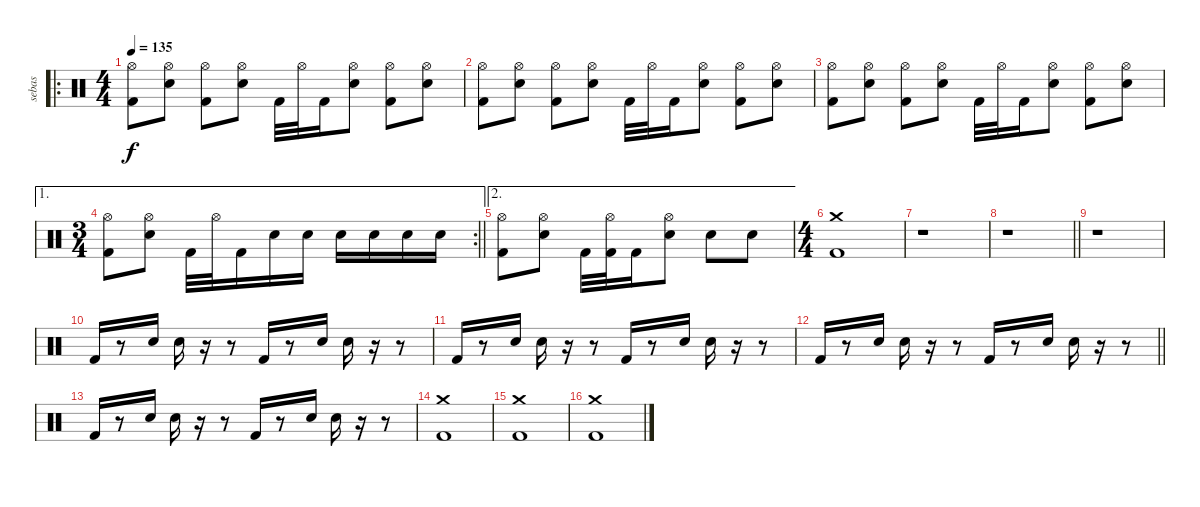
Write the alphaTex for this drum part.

\track ("sebas" "sebas") {instrument percussion}
\staff {score}
\articulation defaults
\ro
\ts (4 4)
\tempo 135
\clef neutral
\ks c
("Hi-Hat (open)" "Kick (hit) 2").8{dy f} ("Hi-Hat (open)" "Snare (hit) 2").8 ("Hi-Hat (open)" "Kick (hit) 2").8 ("Hi-Hat (open)" "Snare (hit) 2").8 "Kick (hit) 2".32 "Hi-Hat (open)".32 "Kick (hit) 2".16 ("Hi-Hat (open)" "Snare (hit) 2").8 ("Hi-Hat (open)" "Kick (hit) 2").8 ("Hi-Hat (open)" "Snare (hit) 2").8 |
("Hi-Hat (open)" "Kick (hit) 2").8 ("Hi-Hat (open)" "Snare (hit) 2").8 ("Hi-Hat (open)" "Kick (hit) 2").8 ("Hi-Hat (open)" "Snare (hit) 2").8 "Kick (hit) 2".32 "Hi-Hat (open)".32 "Kick (hit) 2".16 ("Hi-Hat (open)" "Snare (hit) 2").8 ("Hi-Hat (open)" "Kick (hit) 2").8 ("Hi-Hat (open)" "Snare (hit) 2").8 |
("Hi-Hat (open)" "Kick (hit) 2").8 ("Hi-Hat (open)" "Snare (hit) 2").8 ("Hi-Hat (open)" "Kick (hit) 2").8 ("Hi-Hat (open)" "Snare (hit) 2").8 "Kick (hit) 2".32 "Hi-Hat (open)".32 "Kick (hit) 2".16 ("Hi-Hat (open)" "Snare (hit) 2").8 ("Hi-Hat (open)" "Kick (hit) 2").8 ("Hi-Hat (open)" "Snare (hit) 2").8 |
\ae 1
\rc 2
\ts (3 4)
\barLineRight lightlight
("Hi-Hat (open)" "Kick (hit) 2").8 ("Hi-Hat (open)" "Snare (hit) 2").8 "Kick (hit) 2".32 "Hi-Hat (open)".32 "Kick (hit) 2".16 "Snare (hit) 2".16 "Snare (hit) 2".16 "Snare (hit) 2".16 "Snare (hit) 2".16 "Snare (hit) 2".16 "Snare (hit) 2".16 |
\ae 2
("Hi-Hat (open)" "Kick (hit) 2").8 ("Hi-Hat (open)" "Snare (hit) 2").8 "Kick (hit) 2".32 ("Hi-Hat (open)" "Kick (hit) 2").32 "Kick (hit) 2".16 ("Hi-Hat (open)" "Snare (hit) 2").8 "Snare (hit) 2".8 "Snare (hit) 2".8 |
\ts (4 4)
("Crash medium (hit)" "Kick (hit) 2").1 |
r.1 |
\barLineRight lightlight
r.1 |
r.1 |
"Kick (hit) 2".16 r.8 "Snare (hit) 2".16 "Snare (hit) 2".16 r.16 r.8 "Kick (hit) 2".16 r.8 "Snare (hit) 2".16 "Snare (hit) 2".16 r.16 r.8 |
"Kick (hit) 2".16 r.8 "Snare (hit) 2".16 "Snare (hit) 2".16 r.16 r.8 "Kick (hit) 2".16 r.8 "Snare (hit) 2".16 "Snare (hit) 2".16 r.16 r.8 |
\barLineRight lightlight "Kick (hit) 2".16
r.8 "Snare (hit) 2".16 "Snare (hit) 2".16 r.16 r.8 "Kick (hit) 2".16 r.8 "Snare (hit) 2".16 "Snare (hit) 2".16 r.16 r.8 |
"Kick (hit) 2".16 r.8 "Snare (hit) 2".16 "Snare (hit) 2".16 r.16 r.8 "Kick (hit) 2".16 r.8 "Snare (hit) 2".16 "Snare (hit) 2".16 r.16 r.8 |
("Crash medium (hit)" "Kick (hit) 2").1 |
("Crash medium (hit)" "Kick (hit) 2").1 |
("Crash medium (hit)" "Kick (hit) 2").1
